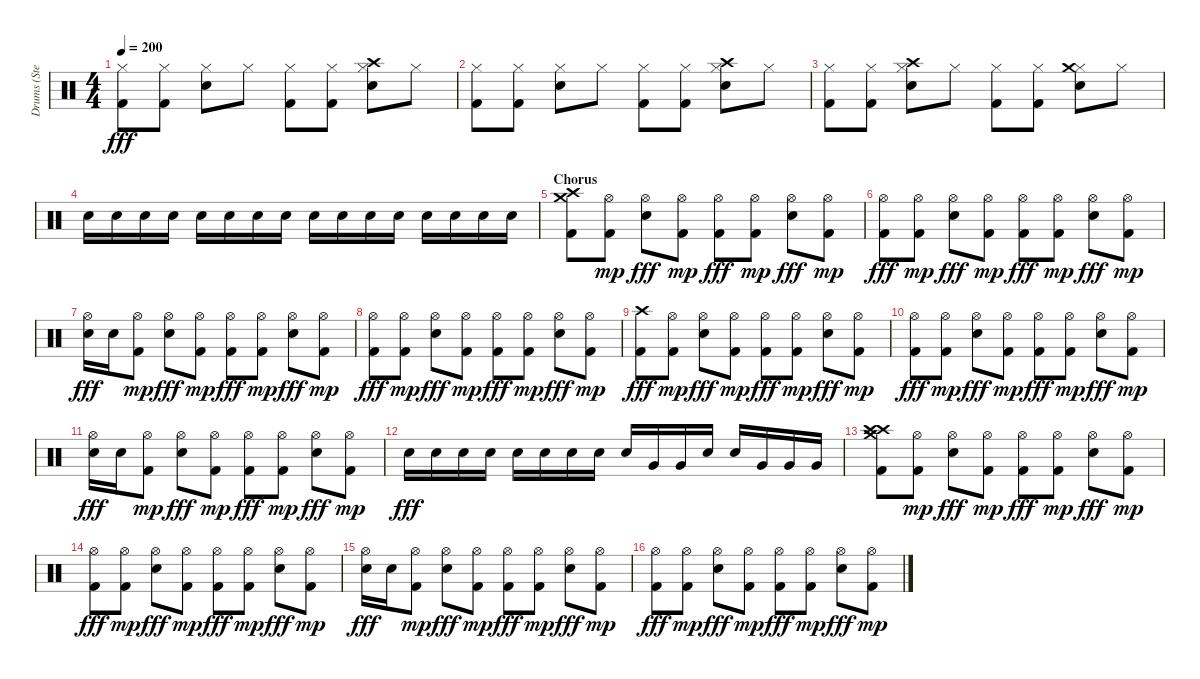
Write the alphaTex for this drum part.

\track ("Drums (Stevo32)" "Drums (Ste") {instrument percussion}
\staff {score}
\articulation defaults
\ts (4 4)
\tempo 200
\clef neutral
\ks c
("Kick (hit) 2" "Hi-Hat (closed)").8{dy fff} ("Kick (hit) 2" "Hi-Hat (closed)").8 ("Electric Snare (hit)" "Hi-Hat (closed)").8 "Hi-Hat (closed)".8 ("Kick (hit) 2" "Hi-Hat (closed)").8 ("Kick (hit) 2" "Hi-Hat (closed)").8 ("Electric Snare (hit)" "Hi-Hat (closed)" "Crash high (hit)").8 "Hi-Hat (closed)".8 |
("Kick (hit) 2" "Hi-Hat (closed)").8 ("Kick (hit) 2" "Hi-Hat (closed)").8 ("Electric Snare (hit)" "Hi-Hat (closed)").8 "Hi-Hat (closed)".8 ("Kick (hit) 2" "Hi-Hat (closed)").8 ("Kick (hit) 2" "Hi-Hat (closed)").8 ("Electric Snare (hit)" "Hi-Hat (closed)" "Crash high (hit)").8 "Hi-Hat (closed)".8 |
("Kick (hit) 2" "Hi-Hat (closed)").8 ("Kick (hit) 2" "Hi-Hat (closed)").8 ("Electric Snare (hit)" "Hi-Hat (closed)" "Crash high (hit)").8 "Hi-Hat (closed)".8 ("Kick (hit) 2" "Hi-Hat (closed)").8 ("Kick (hit) 2" "Hi-Hat (closed)").8 ("Electric Snare (hit)" "Hi-Hat (closed)" "Crash medium (hit)").8 "Hi-Hat (closed)".8 |
"Electric Snare (hit)".16 "Electric Snare (hit)".16 "Electric Snare (hit)".16 "Electric Snare (hit)".16 "Electric Snare (hit)".16 "Electric Snare (hit)".16 "Electric Snare (hit)".16 "Electric Snare (hit)".16 "Electric Snare (hit)".16 "Electric Snare (hit)".16 "Electric Snare (hit)".16 "Electric Snare (hit)".16 "Electric Snare (hit)".16 "Electric Snare (hit)".16 "Electric Snare (hit)".16 "Electric Snare (hit)".16 |
\section ("" "Chorus")
("Kick (hit) 2" "Crash high (hit)" "Crash medium (hit)").8 ("Kick (hit) 2" "Hi-Hat (open)").8{dy mp} ("Electric Snare (hit)" "Hi-Hat (open)").8{dy fff} ("Kick (hit) 2" "Hi-Hat (open)").8{dy mp} ("Kick (hit) 2" "Hi-Hat (open)").8{dy fff} ("Kick (hit) 2" "Hi-Hat (open)").8{dy mp} ("Electric Snare (hit)" "Hi-Hat (open)").8{dy fff} ("Kick (hit) 2" "Hi-Hat (open)").8{dy mp} |
("Kick (hit) 2" "Hi-Hat (open)").8{dy fff} ("Kick (hit) 2" "Hi-Hat (open)").8{dy mp} ("Electric Snare (hit)" "Hi-Hat (open)").8{dy fff} ("Kick (hit) 2" "Hi-Hat (open)").8{dy mp} ("Kick (hit) 2" "Hi-Hat (open)").8{dy fff} ("Kick (hit) 2" "Hi-Hat (open)").8{dy mp} ("Electric Snare (hit)" "Hi-Hat (open)").8{dy fff} ("Kick (hit) 2" "Hi-Hat (open)").8{dy mp} |
("Electric Snare (hit)" "Hi-Hat (open)").16{dy fff} "Electric Snare (hit)".16 ("Kick (hit) 2" "Hi-Hat (open)").8{dy mp} ("Electric Snare (hit)" "Hi-Hat (open)").8{dy fff} ("Kick (hit) 2" "Hi-Hat (open)").8{dy mp} ("Kick (hit) 2" "Hi-Hat (open)").8{dy fff} ("Kick (hit) 2" "Hi-Hat (open)").8{dy mp} ("Electric Snare (hit)" "Hi-Hat (open)").8{dy fff} ("Kick (hit) 2" "Hi-Hat (open)").8{dy mp} |
("Kick (hit) 2" "Hi-Hat (open)").8{dy fff} ("Kick (hit) 2" "Hi-Hat (open)").8{dy mp} ("Electric Snare (hit)" "Hi-Hat (open)").8{dy fff} ("Kick (hit) 2" "Hi-Hat (open)").8{dy mp} ("Kick (hit) 2" "Hi-Hat (open)").8{dy fff} ("Kick (hit) 2" "Hi-Hat (open)").8{dy mp} ("Electric Snare (hit)" "Hi-Hat (open)").8{dy fff} ("Kick (hit) 2" "Hi-Hat (open)").8{dy mp} |
("Kick (hit) 2" "Crash high (hit)").8{dy fff} ("Kick (hit) 2" "Hi-Hat (open)").8{dy mp} ("Electric Snare (hit)" "Hi-Hat (open)").8{dy fff} ("Kick (hit) 2" "Hi-Hat (open)").8{dy mp} ("Kick (hit) 2" "Hi-Hat (open)").8{dy fff} ("Kick (hit) 2" "Hi-Hat (open)").8{dy mp} ("Electric Snare (hit)" "Hi-Hat (open)").8{dy fff} ("Kick (hit) 2" "Hi-Hat (open)").8{dy mp} |
("Kick (hit) 2" "Hi-Hat (open)").8{dy fff} ("Kick (hit) 2" "Hi-Hat (open)").8{dy mp} ("Electric Snare (hit)" "Hi-Hat (open)").8{dy fff} ("Kick (hit) 2" "Hi-Hat (open)").8{dy mp} ("Kick (hit) 2" "Hi-Hat (open)").8{dy fff} ("Kick (hit) 2" "Hi-Hat (open)").8{dy mp} ("Electric Snare (hit)" "Hi-Hat (open)").8{dy fff} ("Kick (hit) 2" "Hi-Hat (open)").8{dy mp} |
("Electric Snare (hit)" "Hi-Hat (open)").16{dy fff} "Electric Snare (hit)".16 ("Kick (hit) 2" "Hi-Hat (open)").8{dy mp} ("Electric Snare (hit)" "Hi-Hat (open)").8{dy fff} ("Kick (hit) 2" "Hi-Hat (open)").8{dy mp} ("Kick (hit) 2" "Hi-Hat (open)").8{dy fff} ("Kick (hit) 2" "Hi-Hat (open)").8{dy mp} ("Electric Snare (hit)" "Hi-Hat (open)").8{dy fff} ("Kick (hit) 2" "Hi-Hat (open)").8{dy mp} |
"Electric Snare (hit)".16{dy fff} "Electric Snare (hit)".16 "Electric Snare (hit)".16 "Electric Snare (hit)".16 "Electric Snare (hit)".16 "Electric Snare (hit)".16 "Electric Snare (hit)".16 "Electric Snare (hit)".16 "Electric Snare (hit)".16 "Very Low Tom (hit)".16 "Very Low Tom (hit)".16 "Electric Snare (hit)".16 "Electric Snare (hit)".16 "Very Low Tom (hit)".16 "Very Low Tom (hit)".16 "Very Low Tom (hit)".16 |
("Kick (hit) 2" "Crash high (hit)" "Crash high (hit)" "Crash medium (hit)").8 ("Kick (hit) 2" "Hi-Hat (open)").8{dy mp} ("Electric Snare (hit)" "Hi-Hat (open)").8{dy fff} ("Kick (hit) 2" "Hi-Hat (open)").8{dy mp} ("Kick (hit) 2" "Hi-Hat (open)").8{dy fff} ("Kick (hit) 2" "Hi-Hat (open)").8{dy mp} ("Electric Snare (hit)" "Hi-Hat (open)").8{dy fff} ("Kick (hit) 2" "Hi-Hat (open)").8{dy mp} |
("Kick (hit) 2" "Hi-Hat (open)").8{dy fff} ("Kick (hit) 2" "Hi-Hat (open)").8{dy mp} ("Electric Snare (hit)" "Hi-Hat (open)").8{dy fff} ("Kick (hit) 2" "Hi-Hat (open)").8{dy mp} ("Kick (hit) 2" "Hi-Hat (open)").8{dy fff} ("Kick (hit) 2" "Hi-Hat (open)").8{dy mp} ("Electric Snare (hit)" "Hi-Hat (open)").8{dy fff} ("Kick (hit) 2" "Hi-Hat (open)").8{dy mp} |
("Electric Snare (hit)" "Hi-Hat (open)").16{dy fff} "Electric Snare (hit)".16 ("Kick (hit) 2" "Hi-Hat (open)").8{dy mp} ("Electric Snare (hit)" "Hi-Hat (open)").8{dy fff} ("Kick (hit) 2" "Hi-Hat (open)").8{dy mp} ("Kick (hit) 2" "Hi-Hat (open)").8{dy fff} ("Kick (hit) 2" "Hi-Hat (open)").8{dy mp} ("Electric Snare (hit)" "Hi-Hat (open)").8{dy fff} ("Kick (hit) 2" "Hi-Hat (open)").8{dy mp} |
("Kick (hit) 2" "Hi-Hat (open)").8{dy fff} ("Kick (hit) 2" "Hi-Hat (open)").8{dy mp} ("Electric Snare (hit)" "Hi-Hat (open)").8{dy fff} ("Kick (hit) 2" "Hi-Hat (open)").8{dy mp} ("Kick (hit) 2" "Hi-Hat (open)").8{dy fff} ("Kick (hit) 2" "Hi-Hat (open)").8{dy mp} ("Electric Snare (hit)" "Hi-Hat (open)").8{dy fff} ("Kick (hit) 2" "Hi-Hat (open)").8{dy mp}
